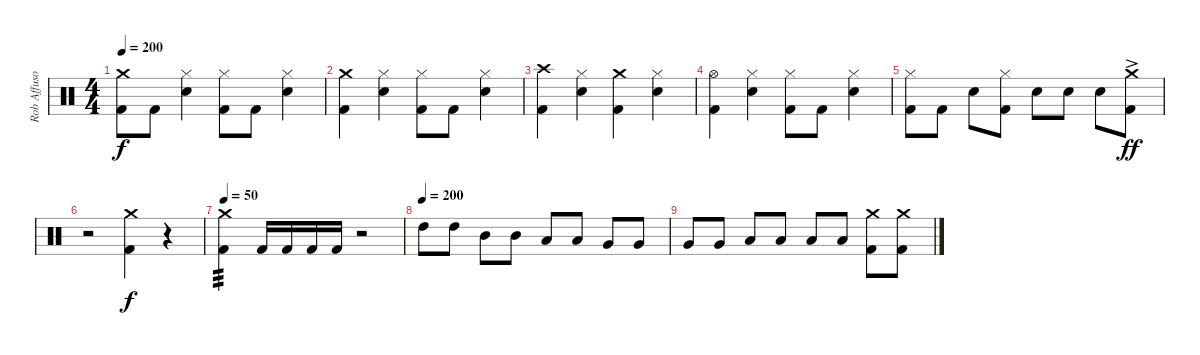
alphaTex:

\track ("Rob Affuso - Drums" "Rob Affuso") {instrument percussion}
\staff {score}
\articulation defaults
\ts (4 4)
\tempo 200
\clef neutral
\ks c
("Crash medium (hit)" "Kick (hit) 2").8{dy f} "Kick (hit) 2".8 ("Hi-Hat (closed)" "Snare (hit) 2").4 ("Hi-Hat (closed)" "Kick (hit) 2").8 "Kick (hit) 2".8 ("Hi-Hat (closed)" "Snare (hit) 2").4 |
("Crash medium (hit)" "Kick (hit) 2").4 ("Hi-Hat (closed)" "Snare (hit) 2").4 ("Hi-Hat (closed)" "Kick (hit) 2").8 "Kick (hit) 2".8 ("Hi-Hat (closed)" "Snare (hit) 2").4 |
("Crash high (hit)" "Kick (hit) 2").4 ("Hi-Hat (closed)" "Snare (hit) 2").4 ("Crash medium (hit)" "Kick (hit) 2").4 ("Hi-Hat (closed)" "Snare (hit) 2").4 |
("Hi-Hat (open)" "Kick (hit) 2").4 ("Hi-Hat (closed)" "Snare (hit) 2").4 ("Hi-Hat (closed)" "Kick (hit) 2").8 "Kick (hit) 2".8 ("Hi-Hat (closed)" "Snare (hit) 2").4 |
("Hi-Hat (closed)" "Kick (hit) 2").8 "Kick (hit) 2".8 "Snare (hit) 2".8 ("Hi-Hat (closed)" "Kick (hit) 2").8 "Snare (hit) 2".8 "Snare (hit) 2".8 "Snare (hit) 2".8 ("Crash medium (hit)"{ac} "Kick (hit) 2").8{dy ff} |
r.2{volume 0} ("Crash medium (hit)" "Kick (hit) 2").4{dy f volume 16} r.4{volume 0} |
\tempo 50
("Crash medium (hit)" "Kick (hit) 2").4{tp 3 volume 16} "Kick (hit) 2".16 "Kick (hit) 2".16 "Kick (hit) 2".16 "Kick (hit) 2".16 r.2 |
\tempo (200)
"High Tom (hit)".8 "High Tom (hit)".8 "Mid Tom (hit)".8 "Mid Tom (hit)".8 "Low Tom (hit)".8 "Low Tom (hit)".8 "Very Low Tom (hit)".8 "Very Low Tom (hit)".8 |
"Very Low Tom (hit)".8 "Very Low Tom (hit)".8 "Low Floor Tom (hit)".8 "Low Floor Tom (hit)".8 "Low Floor Tom (hit)".8 "Low Floor Tom (hit)".8 ("Crash medium (hit)" "Kick (hit) 2").8 ("Crash medium (hit)" "Kick (hit) 2").8
